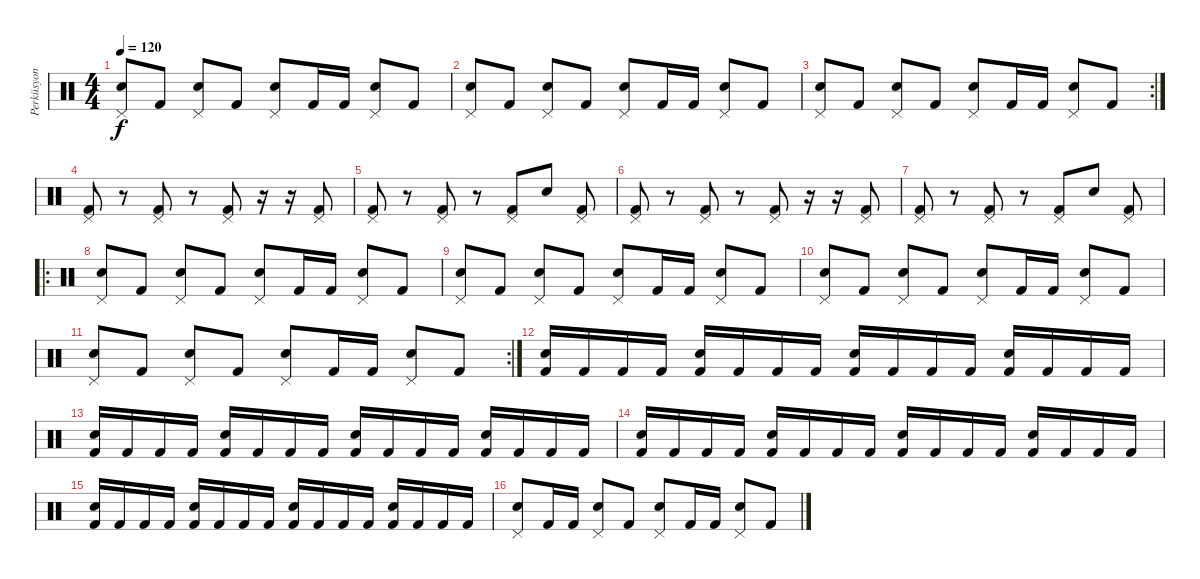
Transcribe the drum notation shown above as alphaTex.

\track ("Perküsyon" "Perküsyon") {instrument percussion}
\staff {score}
\articulation defaults
\ts (4 4)
\tempo 120
\clef neutral
\ks c
("Pedal Hi-Hat (hit)" "Electric Snare (hit)").8{dy f} "Kick (hit) 2".8 ("Pedal Hi-Hat (hit)" "Electric Snare (hit)").8 "Kick (hit) 2".8 ("Pedal Hi-Hat (hit)" "Electric Snare (hit)").8 "Kick (hit) 2".16 "Kick (hit) 2".16 ("Pedal Hi-Hat (hit)" "Electric Snare (hit)").8 "Kick (hit) 2".8 |
("Pedal Hi-Hat (hit)" "Electric Snare (hit)").8 "Kick (hit) 2".8 ("Pedal Hi-Hat (hit)" "Electric Snare (hit)").8 "Kick (hit) 2".8 ("Pedal Hi-Hat (hit)" "Electric Snare (hit)").8 "Kick (hit) 2".16 "Kick (hit) 2".16 ("Pedal Hi-Hat (hit)" "Electric Snare (hit)").8 "Kick (hit) 2".8 |
\rc 2
("Pedal Hi-Hat (hit)" "Electric Snare (hit)").8 "Kick (hit) 2".8 ("Pedal Hi-Hat (hit)" "Electric Snare (hit)").8 "Kick (hit) 2".8 ("Pedal Hi-Hat (hit)" "Electric Snare (hit)").8 "Kick (hit) 2".16 "Kick (hit) 2".16 ("Pedal Hi-Hat (hit)" "Electric Snare (hit)").8 "Kick (hit) 2".8 |
("Pedal Hi-Hat (hit)" "Kick (hit) 2").8 r.8 ("Pedal Hi-Hat (hit)" "Kick (hit) 2").8 r.8 ("Pedal Hi-Hat (hit)" "Kick (hit) 2").8 r.16 r.16 ("Pedal Hi-Hat (hit)" "Kick (hit) 2").8 |
("Pedal Hi-Hat (hit)" "Kick (hit) 2").8 r.8 ("Pedal Hi-Hat (hit)" "Kick (hit) 2").8 r.8 ("Pedal Hi-Hat (hit)" "Kick (hit) 2").8 "Electric Snare (hit)".8 ("Pedal Hi-Hat (hit)" "Kick (hit) 2").8 |
("Pedal Hi-Hat (hit)" "Kick (hit) 2").8 r.8 ("Pedal Hi-Hat (hit)" "Kick (hit) 2").8 r.8 ("Pedal Hi-Hat (hit)" "Kick (hit) 2").8 r.16 r.16 ("Pedal Hi-Hat (hit)" "Kick (hit) 2").8 |
("Pedal Hi-Hat (hit)" "Kick (hit) 2").8 r.8 ("Pedal Hi-Hat (hit)" "Kick (hit) 2").8 r.8 ("Pedal Hi-Hat (hit)" "Kick (hit) 2").8 "Electric Snare (hit)".8 ("Pedal Hi-Hat (hit)" "Kick (hit) 2").8 |
\ro
("Pedal Hi-Hat (hit)" "Electric Snare (hit)").8 "Kick (hit) 2".8 ("Pedal Hi-Hat (hit)" "Electric Snare (hit)").8 "Kick (hit) 2".8 ("Pedal Hi-Hat (hit)" "Electric Snare (hit)").8 "Kick (hit) 2".16 "Kick (hit) 2".16 ("Pedal Hi-Hat (hit)" "Electric Snare (hit)").8 "Kick (hit) 2".8 |
("Pedal Hi-Hat (hit)" "Electric Snare (hit)").8 "Kick (hit) 2".8 ("Pedal Hi-Hat (hit)" "Electric Snare (hit)").8 "Kick (hit) 2".8 ("Pedal Hi-Hat (hit)" "Electric Snare (hit)").8 "Kick (hit) 2".16 "Kick (hit) 2".16 ("Pedal Hi-Hat (hit)" "Electric Snare (hit)").8 "Kick (hit) 2".8 |
("Pedal Hi-Hat (hit)" "Electric Snare (hit)").8 "Kick (hit) 2".8 ("Pedal Hi-Hat (hit)" "Electric Snare (hit)").8 "Kick (hit) 2".8 ("Pedal Hi-Hat (hit)" "Electric Snare (hit)").8 "Kick (hit) 2".16 "Kick (hit) 2".16 ("Pedal Hi-Hat (hit)" "Electric Snare (hit)").8 "Kick (hit) 2".8 |
\rc 2
("Pedal Hi-Hat (hit)" "Electric Snare (hit)").8 "Kick (hit) 2".8 ("Pedal Hi-Hat (hit)" "Electric Snare (hit)").8 "Kick (hit) 2".8 ("Pedal Hi-Hat (hit)" "Electric Snare (hit)").8 "Kick (hit) 2".16 "Kick (hit) 2".16 ("Pedal Hi-Hat (hit)" "Electric Snare (hit)").8 "Kick (hit) 2".8 |
("Kick (hit) 2" "Electric Snare (hit)").16 "Kick (hit) 2".16 "Kick (hit) 2".16 "Kick (hit) 2".16 ("Kick (hit) 2" "Electric Snare (hit)").16 "Kick (hit) 2".16 "Kick (hit) 2".16 "Kick (hit) 2".16 ("Kick (hit) 2" "Electric Snare (hit)").16 "Kick (hit) 2".16 "Kick (hit) 2".16 "Kick (hit) 2".16 ("Kick (hit) 2" "Electric Snare (hit)").16 "Kick (hit) 2".16 "Kick (hit) 2".16 "Kick (hit) 2".16 |
("Kick (hit) 2" "Electric Snare (hit)").16 "Kick (hit) 2".16 "Kick (hit) 2".16 "Kick (hit) 2".16 ("Kick (hit) 2" "Electric Snare (hit)").16 "Kick (hit) 2".16 "Kick (hit) 2".16 "Kick (hit) 2".16 ("Kick (hit) 2" "Electric Snare (hit)").16 "Kick (hit) 2".16 "Kick (hit) 2".16 "Kick (hit) 2".16 ("Kick (hit) 2" "Electric Snare (hit)").16 "Kick (hit) 2".16 "Kick (hit) 2".16 "Kick (hit) 2".16 |
("Kick (hit) 2" "Electric Snare (hit)").16 "Kick (hit) 2".16 "Kick (hit) 2".16 "Kick (hit) 2".16 ("Kick (hit) 2" "Electric Snare (hit)").16 "Kick (hit) 2".16 "Kick (hit) 2".16 "Kick (hit) 2".16 ("Kick (hit) 2" "Electric Snare (hit)").16 "Kick (hit) 2".16 "Kick (hit) 2".16 "Kick (hit) 2".16 ("Kick (hit) 2" "Electric Snare (hit)").16 "Kick (hit) 2".16 "Kick (hit) 2".16 "Kick (hit) 2".16 |
("Kick (hit) 2" "Electric Snare (hit)").16 "Kick (hit) 2".16 "Kick (hit) 2".16 "Kick (hit) 2".16 ("Kick (hit) 2" "Electric Snare (hit)").16 "Kick (hit) 2".16 "Kick (hit) 2".16 "Kick (hit) 2".16 ("Kick (hit) 2" "Electric Snare (hit)").16 "Kick (hit) 2".16 "Kick (hit) 2".16 "Kick (hit) 2".16 ("Kick (hit) 2" "Electric Snare (hit)").16 "Kick (hit) 2".16 "Kick (hit) 2".16 "Kick (hit) 2".16 |
("Pedal Hi-Hat (hit)" "Electric Snare (hit)").8 "Kick (hit) 2".16 "Kick (hit) 2".16 ("Pedal Hi-Hat (hit)" "Electric Snare (hit)").8 "Kick (hit) 2".8 ("Pedal Hi-Hat (hit)" "Electric Snare (hit)").8 "Kick (hit) 2".16 "Kick (hit) 2".16 ("Pedal Hi-Hat (hit)" "Electric Snare (hit)").8 "Kick (hit) 2".8
